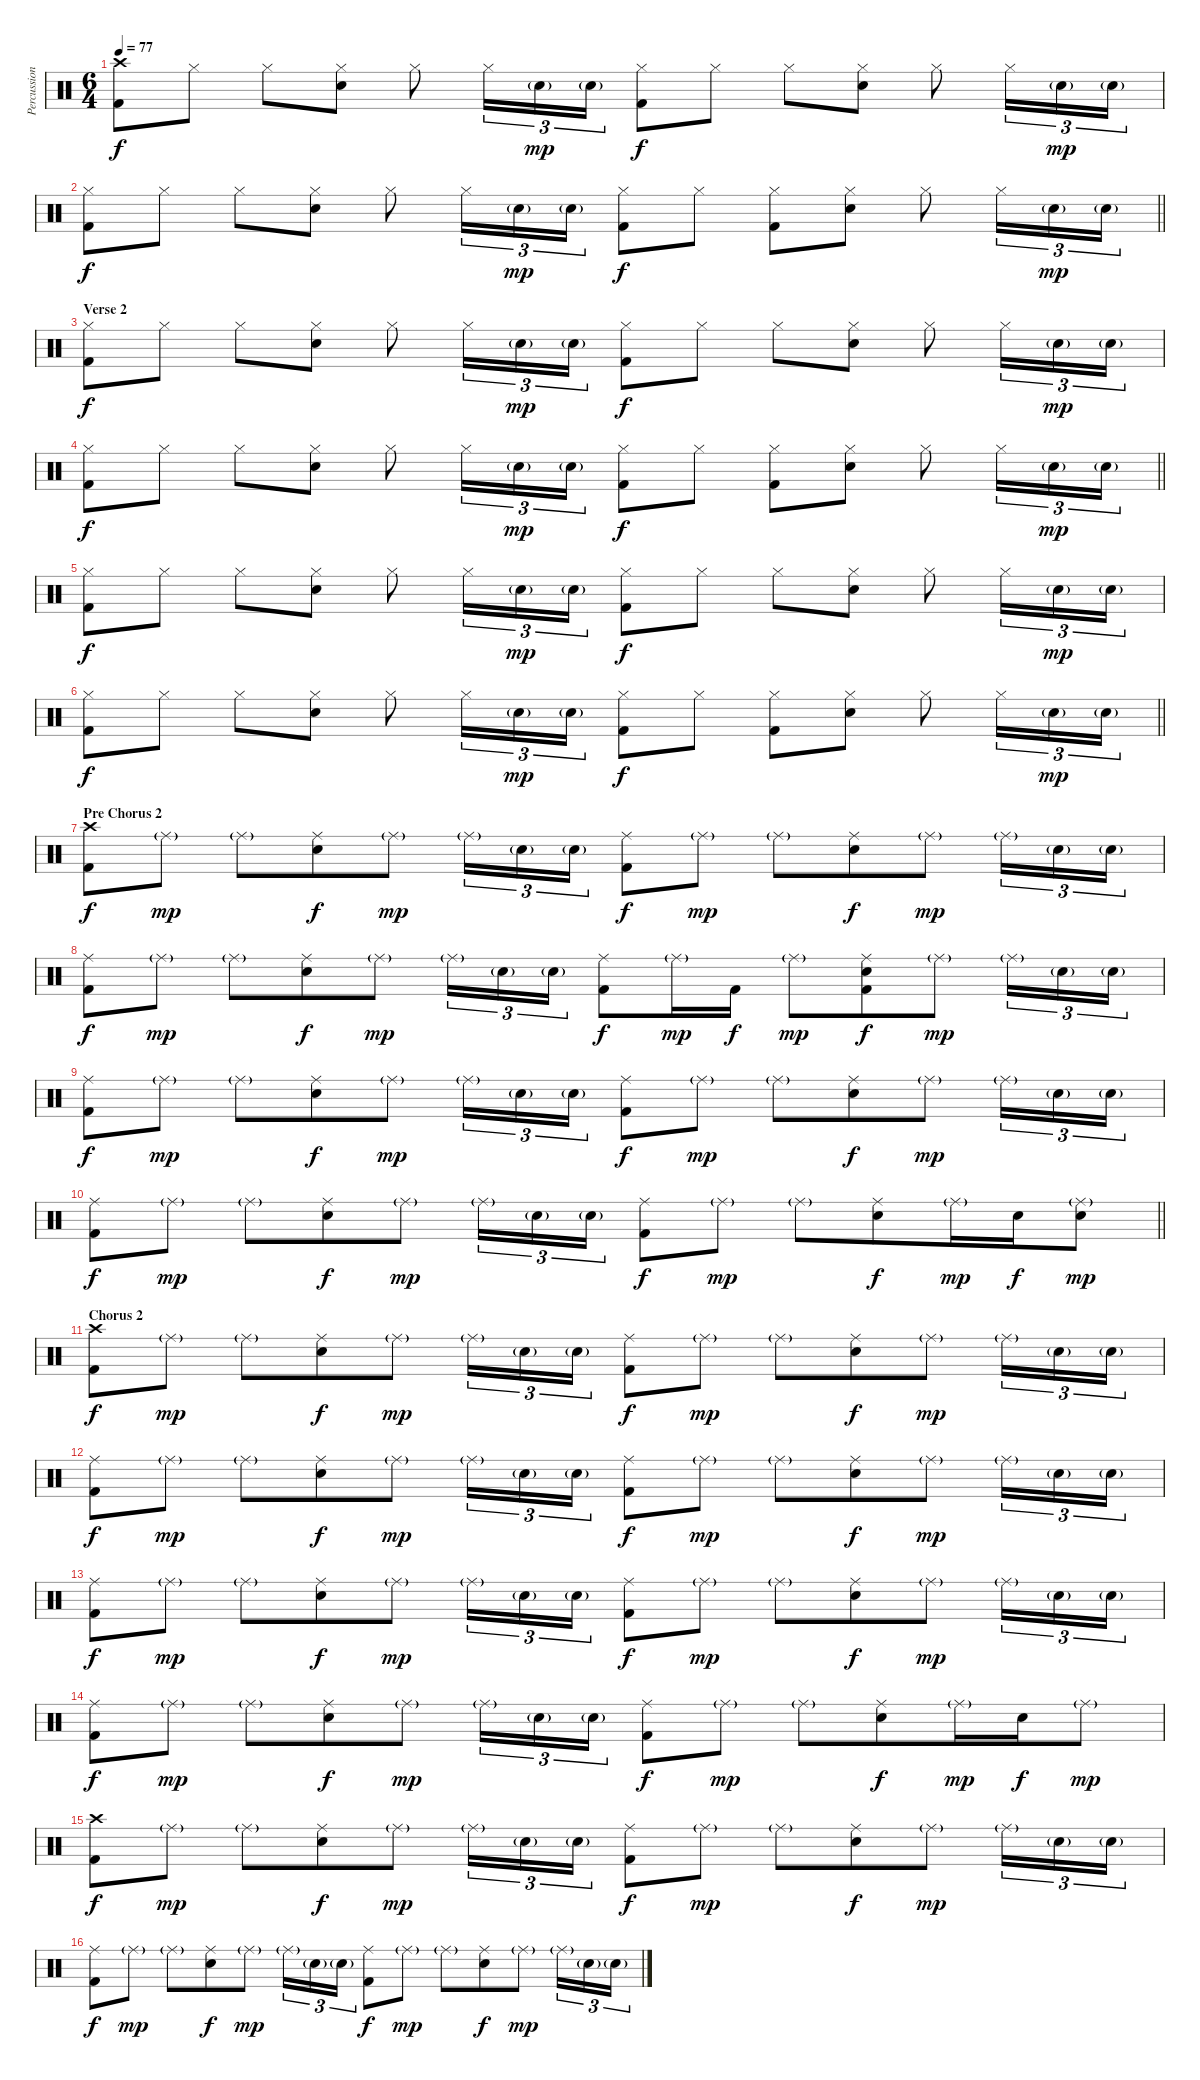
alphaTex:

\track ("Percussion" "Percussion") {instrument percussion}
\staff {score}
\articulation defaults
\ts (6 4)
\tempo 77
\clef neutral
\ks c
("Crash high (hit)" "Kick (hit) 2").8{dy f beam merge} "Hi-Hat (closed)".8 "Hi-Hat (closed)".8 ("Hi-Hat (closed)" "Electric Snare (hit)").8 "Hi-Hat (closed)".8 "Hi-Hat (closed)".16{tu (3 2)} "Electric Snare (hit)"{g}.16{tu (3 2) dy mp} "Electric Snare (hit)"{g}.16{tu (3 2)} ("Hi-Hat (closed)" "Kick (hit) 2").8{dy f} "Hi-Hat (closed)".8 "Hi-Hat (closed)".8 ("Hi-Hat (closed)" "Electric Snare (hit)").8 "Hi-Hat (closed)".8 "Hi-Hat (closed)".16{tu (3 2)} "Electric Snare (hit)"{g}.16{tu (3 2) dy mp} "Electric Snare (hit)"{g}.16{tu (3 2)} |
\barLineRight lightlight
("Hi-Hat (closed)" "Kick (hit) 2").8{dy f beam merge} "Hi-Hat (closed)".8 "Hi-Hat (closed)".8 ("Hi-Hat (closed)" "Electric Snare (hit)").8 "Hi-Hat (closed)".8 "Hi-Hat (closed)".16{tu (3 2)} "Electric Snare (hit)"{g}.16{tu (3 2) dy mp} "Electric Snare (hit)"{g}.16{tu (3 2)} ("Hi-Hat (closed)" "Kick (hit) 2").8{dy f} "Hi-Hat (closed)".8 ("Hi-Hat (closed)" "Kick (hit) 2").8 ("Hi-Hat (closed)" "Electric Snare (hit)").8 "Hi-Hat (closed)".8 "Hi-Hat (closed)".16{tu (3 2)} "Electric Snare (hit)"{g}.16{tu (3 2) dy mp} "Electric Snare (hit)"{g}.16{tu (3 2)} |
\section ("" "Verse 2")
("Hi-Hat (closed)" "Kick (hit) 2").8{dy f beam merge} "Hi-Hat (closed)".8 "Hi-Hat (closed)".8 ("Hi-Hat (closed)" "Electric Snare (hit)").8 "Hi-Hat (closed)".8 "Hi-Hat (closed)".16{tu (3 2)} "Electric Snare (hit)"{g}.16{tu (3 2) dy mp} "Electric Snare (hit)"{g}.16{tu (3 2)} ("Hi-Hat (closed)" "Kick (hit) 2").8{dy f} "Hi-Hat (closed)".8 "Hi-Hat (closed)".8 ("Hi-Hat (closed)" "Electric Snare (hit)").8 "Hi-Hat (closed)".8 "Hi-Hat (closed)".16{tu (3 2)} "Electric Snare (hit)"{g}.16{tu (3 2) dy mp} "Electric Snare (hit)"{g}.16{tu (3 2)} |
\barLineRight lightlight
("Hi-Hat (closed)" "Kick (hit) 2").8{dy f beam merge} "Hi-Hat (closed)".8 "Hi-Hat (closed)".8 ("Hi-Hat (closed)" "Electric Snare (hit)").8 "Hi-Hat (closed)".8 "Hi-Hat (closed)".16{tu (3 2)} "Electric Snare (hit)"{g}.16{tu (3 2) dy mp} "Electric Snare (hit)"{g}.16{tu (3 2)} ("Hi-Hat (closed)" "Kick (hit) 2").8{dy f} "Hi-Hat (closed)".8 ("Hi-Hat (closed)" "Kick (hit) 2").8 ("Hi-Hat (closed)" "Electric Snare (hit)").8 "Hi-Hat (closed)".8 "Hi-Hat (closed)".16{tu (3 2)} "Electric Snare (hit)"{g}.16{tu (3 2) dy mp} "Electric Snare (hit)"{g}.16{tu (3 2)} |
("Hi-Hat (closed)" "Kick (hit) 2").8{dy f beam merge} "Hi-Hat (closed)".8 "Hi-Hat (closed)".8 ("Hi-Hat (closed)" "Electric Snare (hit)").8 "Hi-Hat (closed)".8 "Hi-Hat (closed)".16{tu (3 2)} "Electric Snare (hit)"{g}.16{tu (3 2) dy mp} "Electric Snare (hit)"{g}.16{tu (3 2)} ("Hi-Hat (closed)" "Kick (hit) 2").8{dy f} "Hi-Hat (closed)".8 "Hi-Hat (closed)".8 ("Hi-Hat (closed)" "Electric Snare (hit)").8 "Hi-Hat (closed)".8 "Hi-Hat (closed)".16{tu (3 2)} "Electric Snare (hit)"{g}.16{tu (3 2) dy mp} "Electric Snare (hit)"{g}.16{tu (3 2)} |
\barLineRight lightlight
("Hi-Hat (closed)" "Kick (hit) 2").8{dy f beam merge} "Hi-Hat (closed)".8 "Hi-Hat (closed)".8 ("Hi-Hat (closed)" "Electric Snare (hit)").8 "Hi-Hat (closed)".8 "Hi-Hat (closed)".16{tu (3 2)} "Electric Snare (hit)"{g}.16{tu (3 2) dy mp} "Electric Snare (hit)"{g}.16{tu (3 2)} ("Hi-Hat (closed)" "Kick (hit) 2").8{dy f} "Hi-Hat (closed)".8 ("Hi-Hat (closed)" "Kick (hit) 2").8 ("Hi-Hat (closed)" "Electric Snare (hit)").8 "Hi-Hat (closed)".8 "Hi-Hat (closed)".16{tu (3 2)} "Electric Snare (hit)"{g}.16{tu (3 2) dy mp} "Electric Snare (hit)"{g}.16{tu (3 2)} |
\section ("" "Pre Chorus 2")
("Crash high (hit)" "Kick (hit) 2").8{dy f beam merge} "Ride (middle)"{g}.8{dy mp} "Ride (middle)"{g}.8{beam merge} ("Ride (middle)" "Electric Snare (hit)").8{dy f beam merge} "Ride (middle)"{g}.8{dy mp} "Ride (middle)"{g}.16{tu (3 2)} "Electric Snare (hit)"{g}.16{tu (3 2)} "Electric Snare (hit)"{g}.16{tu (3 2)} ("Ride (middle)" "Kick (hit) 2").8{dy f beam merge} "Ride (middle)"{g}.8{dy mp} "Ride (middle)"{g}.8{beam merge} ("Ride (middle)" "Electric Snare (hit)").8{dy f beam merge} "Ride (middle)"{g}.8{dy mp} "Ride (middle)"{g}.16{tu (3 2)} "Electric Snare (hit)"{g}.16{tu (3 2)} "Electric Snare (hit)"{g}.16{tu (3 2)} |
("Ride (middle)" "Kick (hit) 2").8{dy f beam merge} "Ride (middle)"{g}.8{dy mp} "Ride (middle)"{g}.8{beam merge} ("Ride (middle)" "Electric Snare (hit)").8{dy f beam merge} "Ride (middle)"{g}.8{dy mp} "Ride (middle)"{g}.16{tu (3 2)} "Electric Snare (hit)"{g}.16{tu (3 2)} "Electric Snare (hit)"{g}.16{tu (3 2)} ("Ride (middle)" "Kick (hit) 2").8{dy f beam merge} "Ride (middle)"{g}.16{dy mp beam merge} "Kick (hit) 2".16{dy f} "Ride (middle)"{g}.8{dy mp beam merge} ("Ride (middle)" "Electric Snare (hit)" "Kick (hit) 2").8{dy f beam merge} "Ride (middle)"{g}.8{dy mp} "Ride (middle)"{g}.16{tu (3 2)} "Electric Snare (hit)"{g}.16{tu (3 2)} "Electric Snare (hit)"{g}.16{tu (3 2)} |
("Ride (middle)" "Kick (hit) 2").8{dy f beam merge} "Ride (middle)"{g}.8{dy mp} "Ride (middle)"{g}.8{beam merge} ("Ride (middle)" "Electric Snare (hit)").8{dy f beam merge} "Ride (middle)"{g}.8{dy mp} "Ride (middle)"{g}.16{tu (3 2)} "Electric Snare (hit)"{g}.16{tu (3 2)} "Electric Snare (hit)"{g}.16{tu (3 2)} ("Ride (middle)" "Kick (hit) 2").8{dy f beam merge} "Ride (middle)"{g}.8{dy mp} "Ride (middle)"{g}.8{beam merge} ("Ride (middle)" "Electric Snare (hit)").8{dy f beam merge} "Ride (middle)"{g}.8{dy mp} "Ride (middle)"{g}.16{tu (3 2)} "Electric Snare (hit)"{g}.16{tu (3 2)} "Electric Snare (hit)"{g}.16{tu (3 2)} |
\barLineRight lightlight
("Ride (middle)" "Kick (hit) 2").8{dy f beam merge} "Ride (middle)"{g}.8{dy mp} "Ride (middle)"{g}.8{beam merge} ("Ride (middle)" "Electric Snare (hit)").8{dy f beam merge} "Ride (middle)"{g}.8{dy mp} "Ride (middle)"{g}.16{tu (3 2)} "Electric Snare (hit)"{g}.16{tu (3 2)} "Electric Snare (hit)"{g}.16{tu (3 2)} ("Ride (middle)" "Kick (hit) 2").8{dy f beam merge} "Ride (middle)"{g}.8{dy mp} "Ride (middle)"{g}.8{beam merge} ("Ride (middle)" "Electric Snare (hit)").8{dy f beam merge} "Ride (middle)"{g}.16{dy mp} "Electric Snare (hit)".16{dy f} ("Ride (middle)"{g} "Electric Snare (hit)").8{dy mp} |
\section ("" "Chorus 2")
("Crash high (hit)" "Kick (hit) 2").8{dy f beam merge} "Ride (middle)"{g}.8{dy mp} "Ride (middle)"{g}.8{beam merge} ("Ride (middle)" "Electric Snare (hit)").8{dy f beam merge} "Ride (middle)"{g}.8{dy mp} "Ride (middle)"{g}.16{tu (3 2)} "Electric Snare (hit)"{g}.16{tu (3 2)} "Electric Snare (hit)"{g}.16{tu (3 2)} ("Ride (middle)" "Kick (hit) 2").8{dy f beam merge} "Ride (middle)"{g}.8{dy mp} "Ride (middle)"{g}.8{beam merge} ("Ride (middle)" "Electric Snare (hit)").8{dy f beam merge} "Ride (middle)"{g}.8{dy mp} "Ride (middle)"{g}.16{tu (3 2)} "Electric Snare (hit)"{g}.16{tu (3 2)} "Electric Snare (hit)"{g}.16{tu (3 2)} |
("Ride (middle)" "Kick (hit) 2").8{dy f beam merge} "Ride (middle)"{g}.8{dy mp} "Ride (middle)"{g}.8{beam merge} ("Ride (middle)" "Electric Snare (hit)").8{dy f beam merge} "Ride (middle)"{g}.8{dy mp} "Ride (middle)"{g}.16{tu (3 2)} "Electric Snare (hit)"{g}.16{tu (3 2)} "Electric Snare (hit)"{g}.16{tu (3 2)} ("Ride (middle)" "Kick (hit) 2").8{dy f beam merge} "Ride (middle)"{g}.8{dy mp} "Ride (middle)"{g}.8{beam merge} ("Ride (middle)" "Electric Snare (hit)").8{dy f beam merge} "Ride (middle)"{g}.8{dy mp} "Ride (middle)"{g}.16{tu (3 2)} "Electric Snare (hit)"{g}.16{tu (3 2)} "Electric Snare (hit)"{g}.16{tu (3 2)} |
("Ride (middle)" "Kick (hit) 2").8{dy f beam merge} "Ride (middle)"{g}.8{dy mp} "Ride (middle)"{g}.8{beam merge} ("Ride (middle)" "Electric Snare (hit)").8{dy f beam merge} "Ride (middle)"{g}.8{dy mp} "Ride (middle)"{g}.16{tu (3 2)} "Electric Snare (hit)"{g}.16{tu (3 2)} "Electric Snare (hit)"{g}.16{tu (3 2)} ("Ride (middle)" "Kick (hit) 2").8{dy f beam merge} "Ride (middle)"{g}.8{dy mp} "Ride (middle)"{g}.8{beam merge} ("Ride (middle)" "Electric Snare (hit)").8{dy f beam merge} "Ride (middle)"{g}.8{dy mp} "Ride (middle)"{g}.16{tu (3 2)} "Electric Snare (hit)"{g}.16{tu (3 2)} "Electric Snare (hit)"{g}.16{tu (3 2)} |
("Ride (middle)" "Kick (hit) 2").8{dy f beam merge} "Ride (middle)"{g}.8{dy mp} "Ride (middle)"{g}.8{beam merge} ("Ride (middle)" "Electric Snare (hit)").8{dy f beam merge} "Ride (middle)"{g}.8{dy mp} "Ride (middle)"{g}.16{tu (3 2)} "Electric Snare (hit)"{g}.16{tu (3 2)} "Electric Snare (hit)"{g}.16{tu (3 2)} ("Ride (middle)" "Kick (hit) 2").8{dy f beam merge} "Ride (middle)"{g}.8{dy mp} "Ride (middle)"{g}.8{beam merge} ("Ride (middle)" "Electric Snare (hit)").8{dy f beam merge} "Ride (middle)"{g}.16{dy mp} "Electric Snare (hit)".16{dy f} "Ride (middle)"{g}.8{dy mp} |
("Crash high (hit)" "Kick (hit) 2").8{dy f beam merge} "Ride (middle)"{g}.8{dy mp} "Ride (middle)"{g}.8{beam merge} ("Ride (middle)" "Electric Snare (hit)").8{dy f beam merge} "Ride (middle)"{g}.8{dy mp} "Ride (middle)"{g}.16{tu (3 2)} "Electric Snare (hit)"{g}.16{tu (3 2)} "Electric Snare (hit)"{g}.16{tu (3 2)} ("Ride (middle)" "Kick (hit) 2").8{dy f beam merge} "Ride (middle)"{g}.8{dy mp} "Ride (middle)"{g}.8{beam merge} ("Ride (middle)" "Electric Snare (hit)").8{dy f beam merge} "Ride (middle)"{g}.8{dy mp} "Ride (middle)"{g}.16{tu (3 2)} "Electric Snare (hit)"{g}.16{tu (3 2)} "Electric Snare (hit)"{g}.16{tu (3 2)} |
("Ride (middle)" "Kick (hit) 2").8{dy f beam merge} "Ride (middle)"{g}.8{dy mp} "Ride (middle)"{g}.8{beam merge} ("Ride (middle)" "Electric Snare (hit)").8{dy f beam merge} "Ride (middle)"{g}.8{dy mp} "Ride (middle)"{g}.16{tu (3 2)} "Electric Snare (hit)"{g}.16{tu (3 2)} "Electric Snare (hit)"{g}.16{tu (3 2)} ("Ride (middle)" "Kick (hit) 2").8{dy f beam merge} "Ride (middle)"{g}.8{dy mp} "Ride (middle)"{g}.8{beam merge} ("Ride (middle)" "Electric Snare (hit)").8{dy f beam merge} "Ride (middle)"{g}.8{dy mp} "Ride (middle)"{g}.16{tu (3 2)} "Electric Snare (hit)"{g}.16{tu (3 2)} "Electric Snare (hit)"{g}.16{tu (3 2)}
